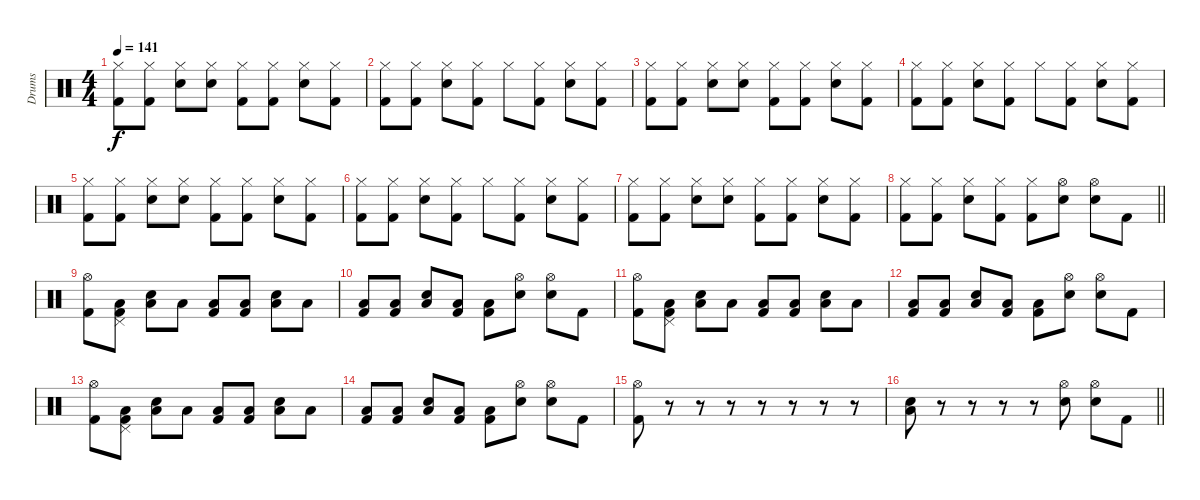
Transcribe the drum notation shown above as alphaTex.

\track ("Drums" "Drums") {instrument percussion}
\staff {score}
\articulation defaults
\ts (4 4)
\tempo 141
\clef neutral
\ks c
("Hi-Hat (closed)" "Kick (hit) 2").8{dy f} ("Hi-Hat (closed)" "Kick (hit) 2").8 ("Hi-Hat (closed)" "Electric Snare (hit)").8 ("Hi-Hat (closed)" "Electric Snare (hit)").8 ("Hi-Hat (closed)" "Kick (hit) 2").8 ("Hi-Hat (closed)" "Kick (hit) 2").8 ("Hi-Hat (closed)" "Electric Snare (hit)").8 ("Hi-Hat (closed)" "Kick (hit) 2").8 |
("Hi-Hat (closed)" "Kick (hit) 2").8 ("Hi-Hat (closed)" "Kick (hit) 2").8 ("Hi-Hat (closed)" "Electric Snare (hit)").8 ("Hi-Hat (closed)" "Kick (hit) 2").8 "Hi-Hat (closed)".8 ("Hi-Hat (closed)" "Kick (hit) 2").8 ("Hi-Hat (closed)" "Electric Snare (hit)").8 ("Hi-Hat (closed)" "Kick (hit) 2").8 |
("Hi-Hat (closed)" "Kick (hit) 2").8 ("Hi-Hat (closed)" "Kick (hit) 2").8 ("Hi-Hat (closed)" "Electric Snare (hit)").8 ("Hi-Hat (closed)" "Electric Snare (hit)").8 ("Hi-Hat (closed)" "Kick (hit) 2").8 ("Hi-Hat (closed)" "Kick (hit) 2").8 ("Hi-Hat (closed)" "Electric Snare (hit)").8 ("Hi-Hat (closed)" "Kick (hit) 2").8 |
("Hi-Hat (closed)" "Kick (hit) 2").8 ("Hi-Hat (closed)" "Kick (hit) 2").8 ("Hi-Hat (closed)" "Electric Snare (hit)").8 ("Hi-Hat (closed)" "Kick (hit) 2").8 "Hi-Hat (closed)".8 ("Hi-Hat (closed)" "Kick (hit) 2").8 ("Hi-Hat (closed)" "Electric Snare (hit)").8 ("Hi-Hat (closed)" "Kick (hit) 2").8 |
("Hi-Hat (closed)" "Kick (hit) 2").8 ("Hi-Hat (closed)" "Kick (hit) 2").8 ("Hi-Hat (closed)" "Electric Snare (hit)").8 ("Hi-Hat (closed)" "Electric Snare (hit)").8 ("Hi-Hat (closed)" "Kick (hit) 2").8 ("Hi-Hat (closed)" "Kick (hit) 2").8 ("Hi-Hat (closed)" "Electric Snare (hit)").8 ("Hi-Hat (closed)" "Kick (hit) 2").8 |
("Hi-Hat (closed)" "Kick (hit) 2").8 ("Hi-Hat (closed)" "Kick (hit) 2").8 ("Hi-Hat (closed)" "Electric Snare (hit)").8 ("Hi-Hat (closed)" "Kick (hit) 2").8 "Hi-Hat (closed)".8 ("Hi-Hat (closed)" "Kick (hit) 2").8 ("Hi-Hat (closed)" "Electric Snare (hit)").8 ("Hi-Hat (closed)" "Kick (hit) 2").8 |
("Hi-Hat (closed)" "Kick (hit) 2").8 ("Hi-Hat (closed)" "Kick (hit) 2").8 ("Hi-Hat (closed)" "Electric Snare (hit)").8 ("Hi-Hat (closed)" "Electric Snare (hit)").8 ("Hi-Hat (closed)" "Kick (hit) 2").8 ("Hi-Hat (closed)" "Kick (hit) 2").8 ("Hi-Hat (closed)" "Electric Snare (hit)").8 ("Hi-Hat (closed)" "Kick (hit) 2").8 |
\barLineRight lightlight
("Hi-Hat (closed)" "Kick (hit) 2").8 ("Hi-Hat (closed)" "Kick (hit) 2").8 ("Hi-Hat (closed)" "Electric Snare (hit)").8 ("Hi-Hat (closed)" "Kick (hit) 2").8 ("Hi-Hat (closed)" "Kick (hit) 2").8 ("Hi-Hat (open)" "Electric Snare (hit)").8 ("Hi-Hat (open)" "Electric Snare (hit)").8 "Kick (hit) 2".8 |
("Hi-Hat (open)" "Kick (hit) 2").8 ("Pedal Hi-Hat (hit)" "Low Floor Tom (hit)" "Kick (hit) 2").8 ("Electric Snare (hit)" "Low Floor Tom (hit)").8 "Low Floor Tom (hit)".8 ("Low Floor Tom (hit)" "Kick (hit) 2").8 ("Low Floor Tom (hit)" "Kick (hit) 2").8 ("Electric Snare (hit)" "Low Floor Tom (hit)").8 "Low Floor Tom (hit)".8 |
("Low Floor Tom (hit)" "Kick (hit) 2").8 ("Low Floor Tom (hit)" "Kick (hit) 2").8 ("Electric Snare (hit)" "Low Floor Tom (hit)").8 ("Low Floor Tom (hit)" "Kick (hit) 2").8 ("Low Floor Tom (hit)" "Kick (hit) 2").8 ("Hi-Hat (open)" "Electric Snare (hit)").8 ("Hi-Hat (open)" "Electric Snare (hit)").8 "Kick (hit) 2".8 |
("Hi-Hat (open)" "Kick (hit) 2").8 ("Pedal Hi-Hat (hit)" "Low Floor Tom (hit)" "Kick (hit) 2").8 ("Electric Snare (hit)" "Low Floor Tom (hit)").8 "Low Floor Tom (hit)".8 ("Low Floor Tom (hit)" "Kick (hit) 2").8 ("Low Floor Tom (hit)" "Kick (hit) 2").8 ("Electric Snare (hit)" "Low Floor Tom (hit)").8 "Low Floor Tom (hit)".8 |
("Low Floor Tom (hit)" "Kick (hit) 2").8 ("Low Floor Tom (hit)" "Kick (hit) 2").8 ("Electric Snare (hit)" "Low Floor Tom (hit)").8 ("Low Floor Tom (hit)" "Kick (hit) 2").8 ("Low Floor Tom (hit)" "Kick (hit) 2").8 ("Hi-Hat (open)" "Electric Snare (hit)").8 ("Hi-Hat (open)" "Electric Snare (hit)").8 "Kick (hit) 2".8 |
("Hi-Hat (open)" "Kick (hit) 2").8 ("Pedal Hi-Hat (hit)" "Low Floor Tom (hit)" "Kick (hit) 2").8 ("Electric Snare (hit)" "Low Floor Tom (hit)").8 "Low Floor Tom (hit)".8 ("Low Floor Tom (hit)" "Kick (hit) 2").8 ("Low Floor Tom (hit)" "Kick (hit) 2").8 ("Electric Snare (hit)" "Low Floor Tom (hit)").8 "Low Floor Tom (hit)".8 |
("Low Floor Tom (hit)" "Kick (hit) 2").8 ("Low Floor Tom (hit)" "Kick (hit) 2").8 ("Electric Snare (hit)" "Low Floor Tom (hit)").8 ("Low Floor Tom (hit)" "Kick (hit) 2").8 ("Low Floor Tom (hit)" "Kick (hit) 2").8 ("Hi-Hat (open)" "Electric Snare (hit)").8 ("Hi-Hat (open)" "Electric Snare (hit)").8 "Kick (hit) 2".8 |
("Hi-Hat (open)" "Kick (hit) 2").8 r.8 r.8 r.8 r.8 r.8 r.8 r.8 |
\barLineRight lightlight
("Electric Snare (hit)" "Low Floor Tom (hit)").8 r.8 r.8 r.8 r.8 ("Hi-Hat (open)" "Electric Snare (hit)").8 ("Hi-Hat (open)" "Electric Snare (hit)").8 "Kick (hit) 2".8
